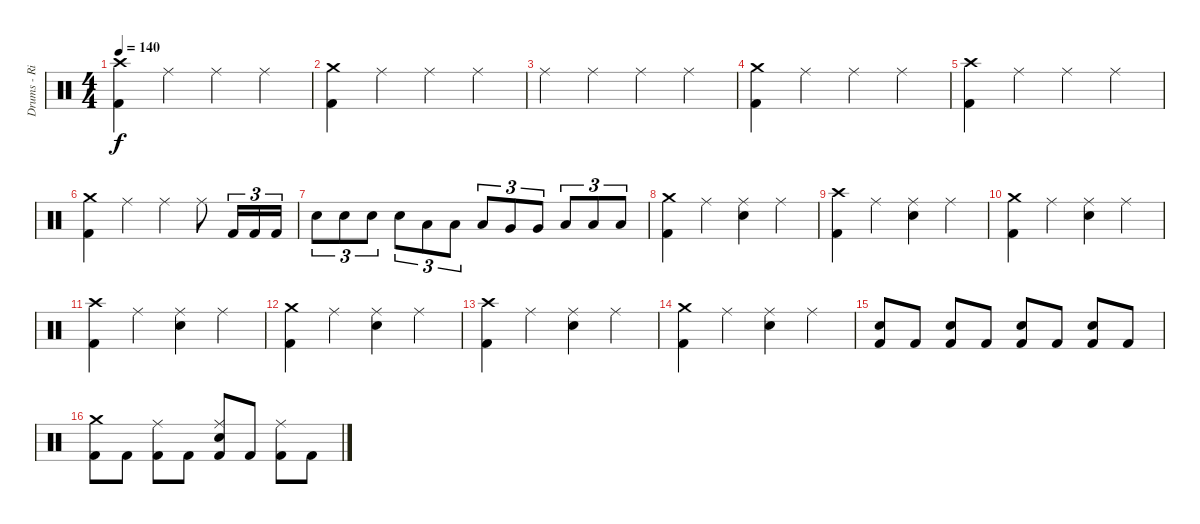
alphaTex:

\track ("Drums - Riley" "Drums - Ri") {instrument percussion}
\staff {score}
\articulation defaults
\ts (4 4)
\tempo 140
\clef neutral
\ks c
("Kick (hit) 2" "Crash high (hit)").4{dy f} "Ride (middle)".4 "Ride (middle)".4 "Ride (middle)".4 |
("Kick (hit) 2" "Crash medium (hit)").4 "Ride (middle)".4 "Ride (middle)".4 "Ride (middle)".4 |
"Ride (middle)".4 "Ride (middle)".4 "Ride (middle)".4 "Ride (middle)".4 |
("Kick (hit) 2" "Crash medium (hit)").4 "Ride (middle)".4 "Ride (middle)".4 "Ride (middle)".4 |
("Kick (hit) 2" "Crash high (hit)").4 "Ride (middle)".4 "Ride (middle)".4 "Ride (middle)".4 |
("Kick (hit) 2" "Crash medium (hit)").4 "Ride (middle)".4 "Ride (middle)".4 "Ride (middle)".8 "Kick (hit) 2".16{tu (3 2)} "Kick (hit) 2".16{tu (3 2)} "Kick (hit) 2".16{tu (3 2)} |
"Electric Snare (hit)".8{tu (3 2)} "Electric Snare (hit)".8{tu (3 2)} "Electric Snare (hit)".8{tu (3 2)} "Electric Snare (hit)".8{tu (3 2)} "Low Tom (hit)".8{tu (3 2)} "Low Tom (hit)".8{tu (3 2)} "Low Tom (hit)".8{tu (3 2)} "Very Low Tom (hit)".8{tu (3 2)} "Very Low Tom (hit)".8{tu (3 2)} "Low Floor Tom (hit)".8{tu (3 2)} "Low Floor Tom (hit)".8{tu (3 2)} "Low Floor Tom (hit)".8{tu (3 2)} |
("Kick (hit) 2" "Crash medium (hit)").4 "Ride (middle)".4 ("Electric Snare (hit)" "Ride (middle)").4 "Ride (middle)".4 |
("Kick (hit) 2" "Crash high (hit)").4 "Ride (middle)".4 ("Electric Snare (hit)" "Ride (middle)").4 "Ride (middle)".4 |
("Kick (hit) 2" "Crash medium (hit)").4 "Ride (middle)".4 ("Electric Snare (hit)" "Ride (middle)").4 "Ride (middle)".4 |
("Kick (hit) 2" "Crash high (hit)").4 "Ride (middle)".4 ("Electric Snare (hit)" "Ride (middle)").4 "Ride (middle)".4 |
("Kick (hit) 2" "Crash medium (hit)").4 "Ride (middle)".4 ("Electric Snare (hit)" "Ride (middle)").4 "Ride (middle)".4 |
("Kick (hit) 2" "Crash high (hit)").4 "Ride (middle)".4 ("Electric Snare (hit)" "Ride (middle)").4 "Ride (middle)".4 |
("Kick (hit) 2" "Crash medium (hit)").4 "Ride (middle)".4 ("Electric Snare (hit)" "Ride (middle)").4 "Ride (middle)".4 |
("Kick (hit) 2" "Electric Snare (hit)").8 "Kick (hit) 2".8 ("Kick (hit) 2" "Electric Snare (hit)").8 "Kick (hit) 2".8 ("Kick (hit) 2" "Electric Snare (hit)").8 "Kick (hit) 2".8 ("Kick (hit) 2" "Electric Snare (hit)").8 "Kick (hit) 2".8 |
("Kick (hit) 2" "Crash medium (hit)").8 "Kick (hit) 2".8 ("Kick (hit) 2" "Ride (middle)").8 "Kick (hit) 2".8 ("Kick (hit) 2" "Electric Snare (hit)" "Ride (middle)").8 "Kick (hit) 2".8 ("Kick (hit) 2" "Ride (middle)").8 "Kick (hit) 2".8
